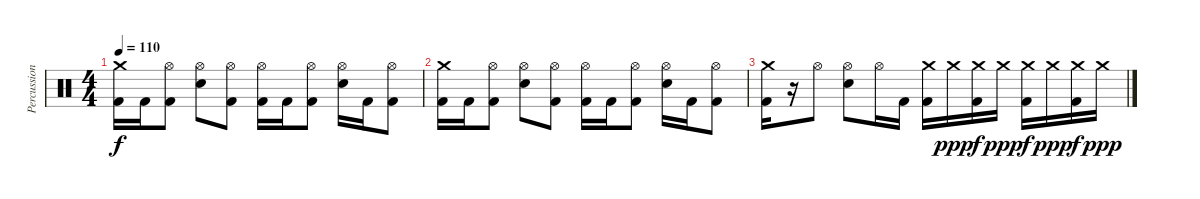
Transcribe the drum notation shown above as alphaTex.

\track ("Percussion" "Percussion") {instrument percussion}
\staff {score}
\articulation defaults
\ts (4 4)
\tempo 110
\clef neutral
\ks c
("Crash medium (hit)" "Kick (hit) 2").16{dy f} "Kick (hit) 2".16 ("Hi-Hat (open)" "Kick (hit) 2").8 ("Hi-Hat (open)" "Electric Snare (hit)").8 ("Hi-Hat (open)" "Kick (hit) 2").8 ("Hi-Hat (open)" "Kick (hit) 2").16 "Kick (hit) 2".16 ("Hi-Hat (open)" "Kick (hit) 2").8 ("Hi-Hat (open)" "Electric Snare (hit)").16 "Kick (hit) 2".16 ("Hi-Hat (open)" "Kick (hit) 2").8 |
("Crash medium (hit)" "Kick (hit) 2").16 "Kick (hit) 2".16 ("Hi-Hat (open)" "Kick (hit) 2").8 ("Hi-Hat (open)" "Electric Snare (hit)").8 ("Hi-Hat (open)" "Kick (hit) 2").8 ("Hi-Hat (open)" "Kick (hit) 2").16 "Kick (hit) 2".16 ("Hi-Hat (open)" "Kick (hit) 2").8 ("Hi-Hat (open)" "Electric Snare (hit)").16 "Kick (hit) 2".16 ("Hi-Hat (open)" "Kick (hit) 2").8 |
("Crash medium (hit)" "Kick (hit) 2").16 r.16 "Hi-Hat (open)".8 ("Hi-Hat (open)" "Electric Snare (hit)").8 "Hi-Hat (open)".16 "Kick (hit) 2".16 ("Crash medium (hit)" "Kick (hit) 2").16 "Crash medium (hit)".16{dy ppp} ("Crash medium (hit)" "Kick (hit) 2").16{dy f} "Crash medium (hit)".16{dy ppp} ("Crash medium (hit)" "Kick (hit) 2").16{dy f} "Crash medium (hit)".16{dy ppp} ("Crash medium (hit)" "Kick (hit) 2").16{dy f} "Crash medium (hit)".16{dy ppp}
